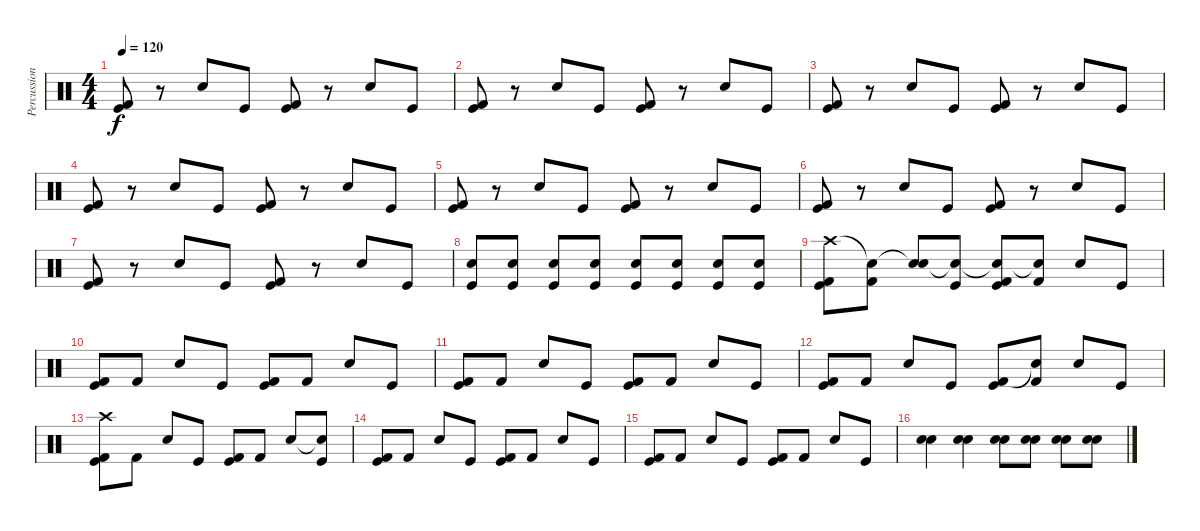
\track ("Percussion" "Percussion") {instrument percussion}
\staff {score}
\articulation defaults
\ts (4 4)
\tempo 120
\clef neutral
\ks c
("Kick (hit) 2" "Kick (hit)").8{dy f} r.8 "Electric Snare (hit)".8 "Kick (hit)".8 ("Kick (hit) 2" "Kick (hit)").8 r.8 "Electric Snare (hit)".8 "Kick (hit)".8 |
("Kick (hit) 2" "Kick (hit)").8 r.8 "Electric Snare (hit)".8 "Kick (hit)".8 ("Kick (hit) 2" "Kick (hit)").8 r.8 "Electric Snare (hit)".8 "Kick (hit)".8 |
("Kick (hit) 2" "Kick (hit)").8 r.8 "Electric Snare (hit)".8 "Kick (hit)".8 ("Kick (hit) 2" "Kick (hit)").8 r.8 "Electric Snare (hit)".8 "Kick (hit)".8 |
("Kick (hit) 2" "Kick (hit)").8 r.8 "Electric Snare (hit)".8 "Kick (hit)".8 ("Kick (hit) 2" "Kick (hit)").8 r.8 "Electric Snare (hit)".8 "Kick (hit)".8 |
("Kick (hit) 2" "Kick (hit)").8 r.8 "Electric Snare (hit)".8 "Kick (hit)".8 ("Kick (hit) 2" "Kick (hit)").8 r.8 "Electric Snare (hit)".8 "Kick (hit)".8 |
("Kick (hit) 2" "Kick (hit)").8 r.8 "Electric Snare (hit)".8 "Kick (hit)".8 ("Kick (hit) 2" "Kick (hit)").8 r.8 "Electric Snare (hit)".8 "Kick (hit)".8 |
("Kick (hit) 2" "Kick (hit)").8 r.8 "Electric Snare (hit)".8 "Kick (hit)".8 ("Kick (hit) 2" "Kick (hit)").8 r.8 "Electric Snare (hit)".8 "Kick (hit)".8 |
("Snare (hit) 2" "Kick (hit)").8 ("Snare (hit) 2" "Kick (hit)").8 ("Snare (hit) 2" "Kick (hit)").8 ("Snare (hit) 2" "Kick (hit)").8 ("Snare (hit) 2" "Kick (hit)").8 ("Snare (hit) 2" "Kick (hit)").8 ("Snare (hit) 2" "Kick (hit)").8 ("Snare (hit) 2" "Kick (hit)").8 |
("Crash high (hit)" "Kick (hit) 2" "Kick (hit)").8 ("Snare (hit)"{t} "Kick (hit) 2").8 ("Snare (hit)"{t} "Electric Snare (hit)").8 ("Snare (hit)"{t} "Kick (hit)").8 ("Snare (hit)"{t} "Kick (hit) 2" "Kick (hit)").8 ("Snare (hit)"{t} "Kick (hit) 2").8 "Electric Snare (hit)".8 "Kick (hit)".8 |
("Kick (hit) 2" "Kick (hit)").8 "Kick (hit) 2".8 "Electric Snare (hit)".8 "Kick (hit)".8 ("Kick (hit) 2" "Kick (hit)").8 "Kick (hit) 2".8 "Electric Snare (hit)".8 "Kick (hit)".8 |
("Kick (hit) 2" "Kick (hit)").8 "Kick (hit) 2".8 "Electric Snare (hit)".8 "Kick (hit)".8 ("Kick (hit) 2" "Kick (hit)").8 "Kick (hit) 2".8 "Electric Snare (hit)".8 "Kick (hit)".8 |
("Kick (hit) 2" "Kick (hit)").8 "Kick (hit) 2".8 "Electric Snare (hit)".8 "Kick (hit)".8 ("Kick (hit) 2" "Kick (hit)").8 ("Snare (hit)"{t} "Kick (hit) 2").8 "Electric Snare (hit)".8 "Kick (hit)".8 |
("Crash high (hit)" "Kick (hit) 2" "Kick (hit)").8 "Kick (hit) 2".8 "Electric Snare (hit)".8 "Kick (hit)".8 ("Kick (hit) 2" "Kick (hit)").8 "Kick (hit) 2".8 "Electric Snare (hit)".8 ("Snare (hit)"{t} "Kick (hit)").8 |
("Kick (hit) 2" "Kick (hit)").8 "Kick (hit) 2".8 "Electric Snare (hit)".8 "Kick (hit)".8 ("Kick (hit) 2" "Kick (hit)").8 "Kick (hit) 2".8 "Electric Snare (hit)".8 "Kick (hit)".8 |
("Kick (hit) 2" "Kick (hit)").8 "Kick (hit) 2".8 "Electric Snare (hit)".8 "Kick (hit)".8 ("Kick (hit) 2" "Kick (hit)").8 "Kick (hit) 2".8 "Electric Snare (hit)".8 "Kick (hit)".8 |
("Electric Snare (hit)" "Snare (hit) 2").4 ("Electric Snare (hit)" "Snare (hit) 2").4 ("Electric Snare (hit)" "Snare (hit) 2").8 ("Electric Snare (hit)" "Snare (hit) 2").8 ("Electric Snare (hit)" "Snare (hit) 2").8 ("Electric Snare (hit)" "Snare (hit) 2").8
